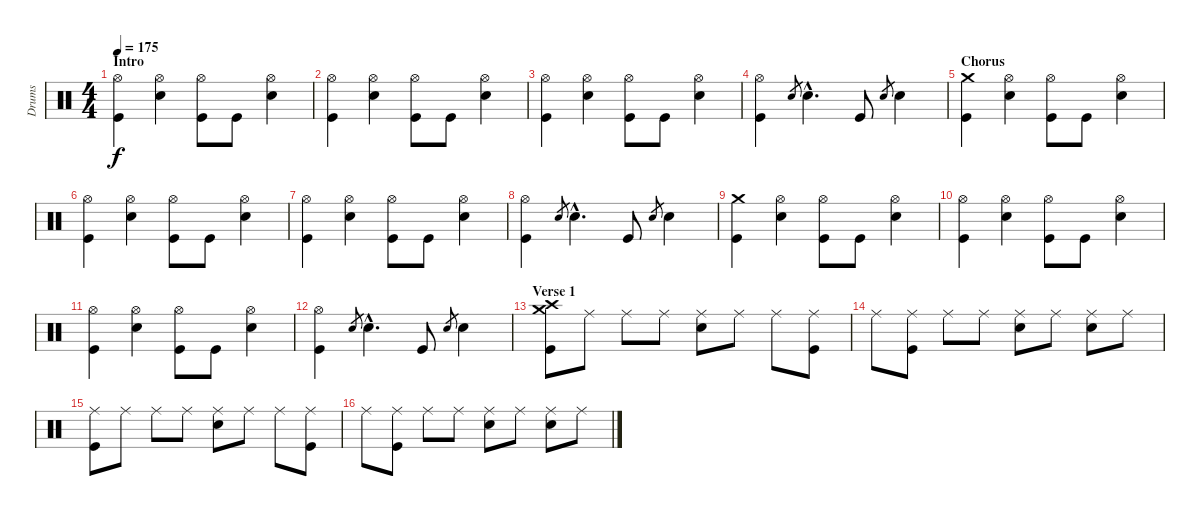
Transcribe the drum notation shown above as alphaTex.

\track ("Drums" "Drums") {instrument percussion}
\staff {score}
\articulation defaults
\ts (4 4)
\section ("" "Intro")
\tempo 175
\clef neutral
\ks c
("Hi-Hat (open)" "Kick (hit)").4{dy f} ("Hi-Hat (open)" "Electric Snare (hit)").4 ("Hi-Hat (open)" "Kick (hit)").8 "Kick (hit)".8 ("Hi-Hat (open)" "Electric Snare (hit)").4 |
("Hi-Hat (open)" "Kick (hit)").4 ("Hi-Hat (open)" "Electric Snare (hit)").4 ("Hi-Hat (open)" "Kick (hit)").8 "Kick (hit)".8 ("Hi-Hat (open)" "Electric Snare (hit)").4 |
("Hi-Hat (open)" "Kick (hit)").4 ("Hi-Hat (open)" "Electric Snare (hit)").4 ("Hi-Hat (open)" "Kick (hit)").8 "Kick (hit)".8 ("Hi-Hat (open)" "Electric Snare (hit)").4 |
("Hi-Hat (open)" "Kick (hit)").4 "Electric Snare (hit)".8{gr} "Electric Snare (hit)"{hac}.4{d} "Kick (hit)".8 "Electric Snare (hit)".8{gr} "Electric Snare (hit)".4 |
\section ("" "Chorus")
("Crash medium (hit)" "Kick (hit)").4 ("Hi-Hat (open)" "Electric Snare (hit)").4 ("Hi-Hat (open)" "Kick (hit)").8 "Kick (hit)".8 ("Hi-Hat (open)" "Electric Snare (hit)").4 |
("Hi-Hat (open)" "Kick (hit)").4 ("Hi-Hat (open)" "Electric Snare (hit)").4 ("Hi-Hat (open)" "Kick (hit)").8 "Kick (hit)".8 ("Hi-Hat (open)" "Electric Snare (hit)").4 |
("Hi-Hat (open)" "Kick (hit)").4 ("Hi-Hat (open)" "Electric Snare (hit)").4 ("Hi-Hat (open)" "Kick (hit)").8 "Kick (hit)".8 ("Hi-Hat (open)" "Electric Snare (hit)").4 |
("Hi-Hat (open)" "Kick (hit)").4 "Electric Snare (hit)".8{gr} "Electric Snare (hit)"{hac}.4{d} "Kick (hit)".8 "Electric Snare (hit)".8{gr} "Electric Snare (hit)".4 |
("Crash medium (hit)" "Kick (hit)").4 ("Hi-Hat (open)" "Electric Snare (hit)").4 ("Hi-Hat (open)" "Kick (hit)").8 "Kick (hit)".8 ("Hi-Hat (open)" "Electric Snare (hit)").4 |
("Hi-Hat (open)" "Kick (hit)").4 ("Hi-Hat (open)" "Electric Snare (hit)").4 ("Hi-Hat (open)" "Kick (hit)").8 "Kick (hit)".8 ("Hi-Hat (open)" "Electric Snare (hit)").4 |
("Hi-Hat (open)" "Kick (hit)").4 ("Hi-Hat (open)" "Electric Snare (hit)").4 ("Hi-Hat (open)" "Kick (hit)").8 "Kick (hit)".8 ("Hi-Hat (open)" "Electric Snare (hit)").4 |
("Hi-Hat (open)" "Kick (hit)").4 "Electric Snare (hit)".8{gr} "Electric Snare (hit)"{hac}.4{d} "Kick (hit)".8 "Electric Snare (hit)".8{gr} "Electric Snare (hit)".4 |
\section ("" "Verse 1")
("Crash high (hit)" "Crash medium (hit)" "Kick (hit)").8 "Ride (middle)".8 "Ride (middle)".8 "Ride (middle)".8 ("Ride (middle)" "Electric Snare (hit)").8 "Ride (middle)".8 "Ride (middle)".8 ("Ride (middle)" "Kick (hit)").8 |
"Ride (middle)".8 ("Ride (middle)" "Kick (hit)").8 "Ride (middle)".8 "Ride (middle)".8 ("Ride (middle)" "Electric Snare (hit)").8 "Ride (middle)".8 ("Ride (middle)" "Electric Snare (hit)").8 "Ride (middle)".8 |
("Ride (middle)" "Kick (hit)").8 "Ride (middle)".8 "Ride (middle)".8 "Ride (middle)".8 ("Ride (middle)" "Electric Snare (hit)").8 "Ride (middle)".8 "Ride (middle)".8 ("Ride (middle)" "Kick (hit)").8 |
"Ride (middle)".8 ("Ride (middle)" "Kick (hit)").8 "Ride (middle)".8 "Ride (middle)".8 ("Ride (middle)" "Electric Snare (hit)").8 "Ride (middle)".8 ("Ride (middle)" "Electric Snare (hit)").8 "Ride (middle)".8
